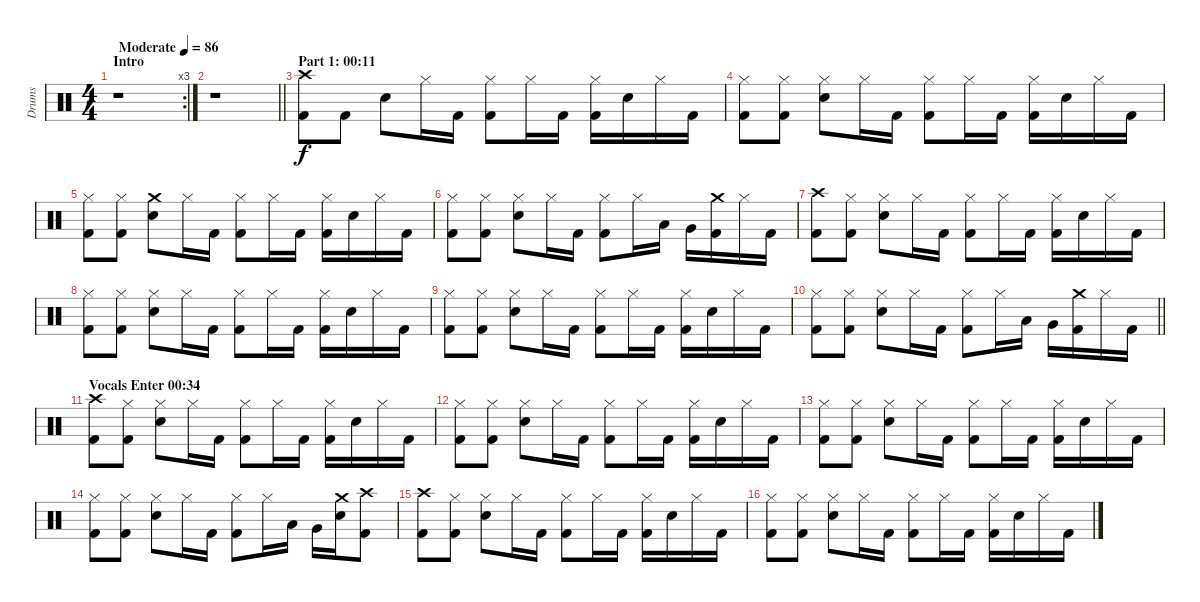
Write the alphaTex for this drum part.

\track ("Drums" "Drums") {instrument percussion}
\staff {score}
\articulation defaults
\rc 3
\ts (4 4)
\section ("" "Intro")
\tempo (86 "Moderate")
\clef neutral
\ks c
r.1{dy f} |
\barLineRight lightlight
r.1 |
\section ("" "Part 1: 00:11")
("Crash high (hit)" "Kick (hit) 2").8 "Kick (hit) 2".8 "Electric Snare (hit)".8 "Hi-Hat (closed)".16 "Kick (hit) 2".16 ("Hi-Hat (closed)" "Kick (hit) 2").8 "Hi-Hat (closed)".16 "Kick (hit) 2".16 ("Hi-Hat (closed)" "Kick (hit) 2").16 "Electric Snare (hit)".16 "Hi-Hat (closed)".16 "Kick (hit) 2".16 |
("Hi-Hat (closed)" "Kick (hit) 2").8 ("Hi-Hat (closed)" "Kick (hit) 2").8 ("Hi-Hat (closed)" "Electric Snare (hit)").8 "Hi-Hat (closed)".16 "Kick (hit) 2".16 ("Hi-Hat (closed)" "Kick (hit) 2").8 "Hi-Hat (closed)".16 "Kick (hit) 2".16 ("Hi-Hat (closed)" "Kick (hit) 2").16 "Electric Snare (hit)".16 "Hi-Hat (closed)".16 "Kick (hit) 2".16 |
("Hi-Hat (closed)" "Kick (hit) 2").8 ("Hi-Hat (closed)" "Kick (hit) 2").8 ("Crash medium (hit)" "Electric Snare (hit)").8 "Hi-Hat (closed)".16 "Kick (hit) 2".16 ("Hi-Hat (closed)" "Kick (hit) 2").8 "Hi-Hat (closed)".16 "Kick (hit) 2".16 ("Hi-Hat (closed)" "Kick (hit) 2").16 "Electric Snare (hit)".16 "Hi-Hat (closed)".16 "Kick (hit) 2".16 |
("Hi-Hat (closed)" "Kick (hit) 2").8 ("Hi-Hat (closed)" "Kick (hit) 2").8 ("Hi-Hat (closed)" "Electric Snare (hit)").8 "Hi-Hat (closed)".16 "Kick (hit) 2".16 ("Hi-Hat (closed)" "Kick (hit) 2").8 "Hi-Hat (closed)".16 "Low Tom (hit)".16 "Very Low Tom (hit)".16 ("Crash medium (hit)" "Kick (hit) 2").16 "Hi-Hat (closed)".16 "Kick (hit) 2".16 |
("Crash high (hit)" "Kick (hit) 2").8 ("Hi-Hat (closed)" "Kick (hit) 2").8 ("Hi-Hat (closed)" "Electric Snare (hit)").8 "Hi-Hat (closed)".16 "Kick (hit) 2".16 ("Hi-Hat (closed)" "Kick (hit) 2").8 "Hi-Hat (closed)".16 "Kick (hit) 2".16 ("Hi-Hat (closed)" "Kick (hit) 2").16 "Electric Snare (hit)".16 "Hi-Hat (closed)".16 "Kick (hit) 2".16 |
("Hi-Hat (closed)" "Kick (hit) 2").8 ("Hi-Hat (closed)" "Kick (hit) 2").8 ("Hi-Hat (closed)" "Electric Snare (hit)").8 "Hi-Hat (closed)".16 "Kick (hit) 2".16 ("Hi-Hat (closed)" "Kick (hit) 2").8 "Hi-Hat (closed)".16 "Kick (hit) 2".16 ("Hi-Hat (closed)" "Kick (hit) 2").16 "Electric Snare (hit)".16 "Hi-Hat (closed)".16 "Kick (hit) 2".16 |
("Hi-Hat (closed)" "Kick (hit) 2").8 ("Hi-Hat (closed)" "Kick (hit) 2").8 ("Hi-Hat (closed)" "Electric Snare (hit)").8 "Hi-Hat (closed)".16 "Kick (hit) 2".16 ("Hi-Hat (closed)" "Kick (hit) 2").8 "Hi-Hat (closed)".16 "Kick (hit) 2".16 ("Hi-Hat (closed)" "Kick (hit) 2").16 "Electric Snare (hit)".16 "Hi-Hat (closed)".16 "Kick (hit) 2".16 |
\barLineRight lightlight
("Hi-Hat (closed)" "Kick (hit) 2").8 ("Hi-Hat (closed)" "Kick (hit) 2").8 ("Hi-Hat (closed)" "Electric Snare (hit)").8 "Hi-Hat (closed)".16 "Kick (hit) 2".16 ("Hi-Hat (closed)" "Kick (hit) 2").8 "Hi-Hat (closed)".16 "Low Tom (hit)".16 "Very Low Tom (hit)".16 ("Crash medium (hit)" "Kick (hit) 2").16 "Hi-Hat (closed)".16 "Kick (hit) 2".16 |
\section ("" "Vocals Enter 00:34")
("Crash high (hit)" "Kick (hit) 2").8 ("Hi-Hat (closed)" "Kick (hit) 2").8 ("Hi-Hat (closed)" "Electric Snare (hit)").8 "Hi-Hat (closed)".16 "Kick (hit) 2".16 ("Hi-Hat (closed)" "Kick (hit) 2").8 "Hi-Hat (closed)".16 "Kick (hit) 2".16 ("Hi-Hat (closed)" "Kick (hit) 2").16 "Electric Snare (hit)".16 "Hi-Hat (closed)".16 "Kick (hit) 2".16 |
("Hi-Hat (closed)" "Kick (hit) 2").8 ("Hi-Hat (closed)" "Kick (hit) 2").8 ("Hi-Hat (closed)" "Electric Snare (hit)").8 "Hi-Hat (closed)".16 "Kick (hit) 2".16 ("Hi-Hat (closed)" "Kick (hit) 2").8 "Hi-Hat (closed)".16 "Kick (hit) 2".16 ("Hi-Hat (closed)" "Kick (hit) 2").16 "Electric Snare (hit)".16 "Hi-Hat (closed)".16 "Kick (hit) 2".16 |
("Hi-Hat (closed)" "Kick (hit) 2").8 ("Hi-Hat (closed)" "Kick (hit) 2").8 ("Hi-Hat (closed)" "Electric Snare (hit)").8 "Hi-Hat (closed)".16 "Kick (hit) 2".16 ("Hi-Hat (closed)" "Kick (hit) 2").8 "Hi-Hat (closed)".16 "Kick (hit) 2".16 ("Hi-Hat (closed)" "Kick (hit) 2").16 "Electric Snare (hit)".16 "Hi-Hat (closed)".16 "Kick (hit) 2".16 |
("Hi-Hat (closed)" "Kick (hit) 2").8 ("Hi-Hat (closed)" "Kick (hit) 2").8 ("Hi-Hat (closed)" "Electric Snare (hit)").8 "Hi-Hat (closed)".16 "Kick (hit) 2".16 ("Hi-Hat (closed)" "Kick (hit) 2").8 "Hi-Hat (closed)".16 "Low Tom (hit)".16 "Very Low Tom (hit)".16 ("Crash medium (hit)" "Electric Snare (hit)").16 ("Crash high (hit)" "Kick (hit) 2").8 |
("Crash high (hit)" "Kick (hit) 2").8 ("Hi-Hat (closed)" "Kick (hit) 2").8 ("Hi-Hat (closed)" "Electric Snare (hit)").8 "Hi-Hat (closed)".16 "Kick (hit) 2".16 ("Hi-Hat (closed)" "Kick (hit) 2").8 "Hi-Hat (closed)".16 "Kick (hit) 2".16 ("Hi-Hat (closed)" "Kick (hit) 2").16 "Electric Snare (hit)".16 "Hi-Hat (closed)".16 "Kick (hit) 2".16 |
("Hi-Hat (closed)" "Kick (hit) 2").8 ("Hi-Hat (closed)" "Kick (hit) 2").8 ("Hi-Hat (closed)" "Electric Snare (hit)").8 "Hi-Hat (closed)".16 "Kick (hit) 2".16 ("Hi-Hat (closed)" "Kick (hit) 2").8 "Hi-Hat (closed)".16 "Kick (hit) 2".16 ("Hi-Hat (closed)" "Kick (hit) 2").16 "Electric Snare (hit)".16 "Hi-Hat (closed)".16 "Kick (hit) 2".16
